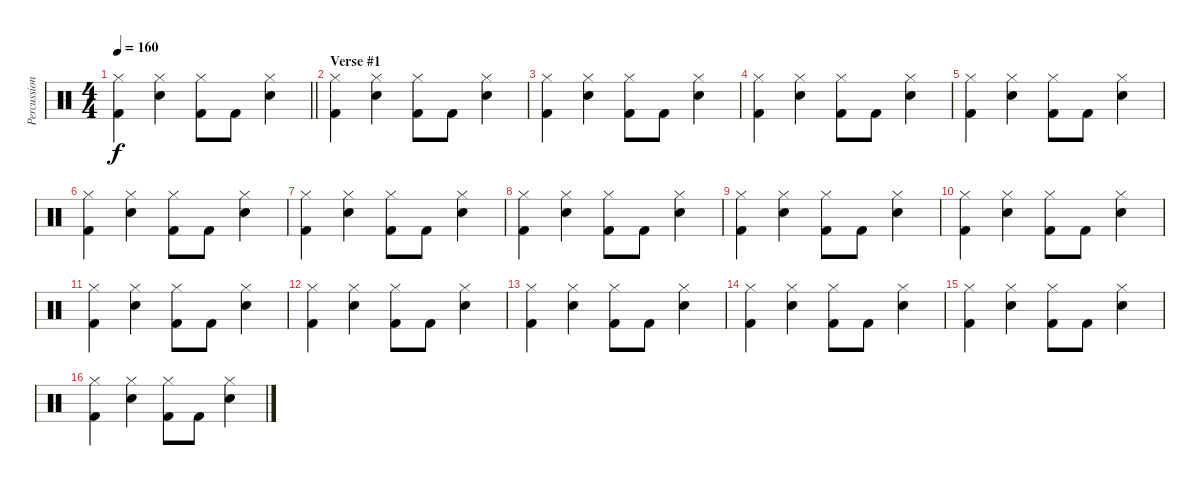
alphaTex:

\track ("Percussion" "Percussion") {instrument percussion}
\staff {score}
\articulation defaults
\ts (4 4)
\tempo 160
\clef neutral
\barLineRight lightlight
\ks c
("Hi-Hat (closed)" "Kick (hit) 2").4{dy f} ("Hi-Hat (closed)" "Electric Snare (hit)").4 ("Hi-Hat (closed)" "Kick (hit) 2").8 "Kick (hit) 2".8 ("Hi-Hat (closed)" "Electric Snare (hit)").4 |
\section ("" "Verse #1")
("Hi-Hat (closed)" "Kick (hit) 2").4 ("Hi-Hat (closed)" "Electric Snare (hit)").4 ("Hi-Hat (closed)" "Kick (hit) 2").8 "Kick (hit) 2".8 ("Hi-Hat (closed)" "Electric Snare (hit)").4 |
("Hi-Hat (closed)" "Kick (hit) 2").4 ("Hi-Hat (closed)" "Electric Snare (hit)").4 ("Hi-Hat (closed)" "Kick (hit) 2").8 "Kick (hit) 2".8 ("Hi-Hat (closed)" "Electric Snare (hit)").4 |
("Hi-Hat (closed)" "Kick (hit) 2").4 ("Hi-Hat (closed)" "Electric Snare (hit)").4 ("Hi-Hat (closed)" "Kick (hit) 2").8 "Kick (hit) 2".8 ("Hi-Hat (closed)" "Electric Snare (hit)").4 |
("Hi-Hat (closed)" "Kick (hit) 2").4 ("Hi-Hat (closed)" "Electric Snare (hit)").4 ("Hi-Hat (closed)" "Kick (hit) 2").8 "Kick (hit) 2".8 ("Hi-Hat (closed)" "Electric Snare (hit)").4 |
("Hi-Hat (closed)" "Kick (hit) 2").4 ("Hi-Hat (closed)" "Electric Snare (hit)").4 ("Hi-Hat (closed)" "Kick (hit) 2").8 "Kick (hit) 2".8 ("Hi-Hat (closed)" "Electric Snare (hit)").4 |
("Hi-Hat (closed)" "Kick (hit) 2").4 ("Hi-Hat (closed)" "Electric Snare (hit)").4 ("Hi-Hat (closed)" "Kick (hit) 2").8 "Kick (hit) 2".8 ("Hi-Hat (closed)" "Electric Snare (hit)").4 |
("Hi-Hat (closed)" "Kick (hit) 2").4 ("Hi-Hat (closed)" "Electric Snare (hit)").4 ("Hi-Hat (closed)" "Kick (hit) 2").8 "Kick (hit) 2".8 ("Hi-Hat (closed)" "Electric Snare (hit)").4 |
("Hi-Hat (closed)" "Kick (hit) 2").4 ("Hi-Hat (closed)" "Electric Snare (hit)").4 ("Hi-Hat (closed)" "Kick (hit) 2").8 "Kick (hit) 2".8 ("Hi-Hat (closed)" "Electric Snare (hit)").4 |
("Hi-Hat (closed)" "Kick (hit) 2").4 ("Hi-Hat (closed)" "Electric Snare (hit)").4 ("Hi-Hat (closed)" "Kick (hit) 2").8 "Kick (hit) 2".8 ("Hi-Hat (closed)" "Electric Snare (hit)").4 |
("Hi-Hat (closed)" "Kick (hit) 2").4 ("Hi-Hat (closed)" "Electric Snare (hit)").4 ("Hi-Hat (closed)" "Kick (hit) 2").8 "Kick (hit) 2".8 ("Hi-Hat (closed)" "Electric Snare (hit)").4 |
("Hi-Hat (closed)" "Kick (hit) 2").4 ("Hi-Hat (closed)" "Electric Snare (hit)").4 ("Hi-Hat (closed)" "Kick (hit) 2").8 "Kick (hit) 2".8 ("Hi-Hat (closed)" "Electric Snare (hit)").4 |
("Hi-Hat (closed)" "Kick (hit) 2").4 ("Hi-Hat (closed)" "Electric Snare (hit)").4 ("Hi-Hat (closed)" "Kick (hit) 2").8 "Kick (hit) 2".8 ("Hi-Hat (closed)" "Electric Snare (hit)").4 |
("Hi-Hat (closed)" "Kick (hit) 2").4 ("Hi-Hat (closed)" "Electric Snare (hit)").4 ("Hi-Hat (closed)" "Kick (hit) 2").8 "Kick (hit) 2".8 ("Hi-Hat (closed)" "Electric Snare (hit)").4 |
("Hi-Hat (closed)" "Kick (hit) 2").4 ("Hi-Hat (closed)" "Electric Snare (hit)").4 ("Hi-Hat (closed)" "Kick (hit) 2").8 "Kick (hit) 2".8 ("Hi-Hat (closed)" "Electric Snare (hit)").4 |
("Hi-Hat (closed)" "Kick (hit) 2").4 ("Hi-Hat (closed)" "Electric Snare (hit)").4 ("Hi-Hat (closed)" "Kick (hit) 2").8 "Kick (hit) 2".8 ("Hi-Hat (closed)" "Electric Snare (hit)").4
